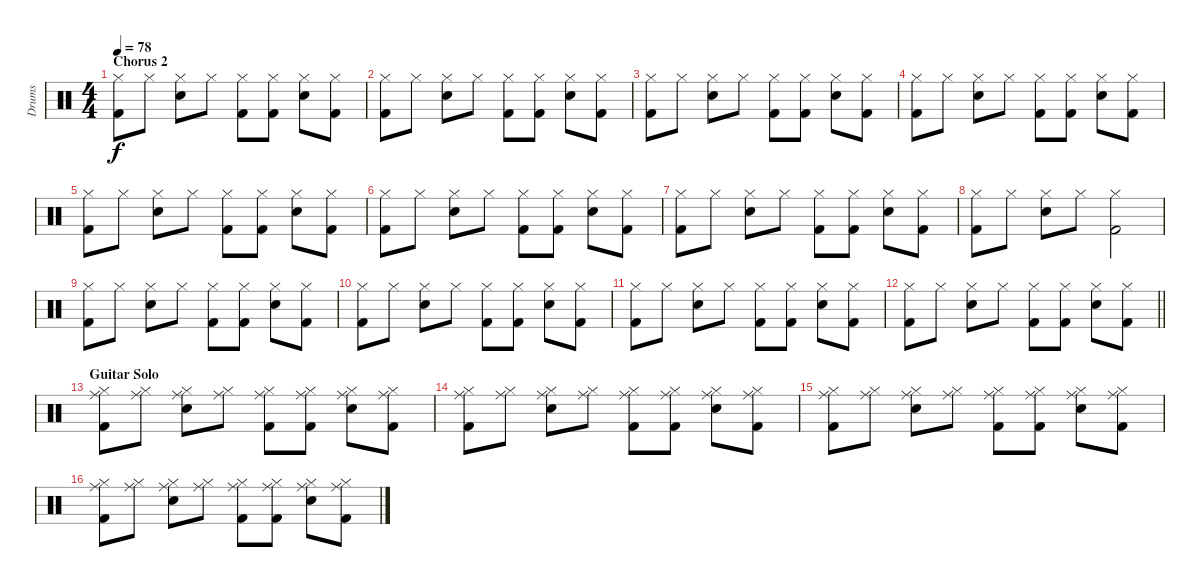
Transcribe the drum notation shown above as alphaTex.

\track ("Drums" "Drums") {instrument percussion}
\staff {score}
\articulation defaults
\ts (4 4)
\section ("" "Chorus 2")
\tempo 78
\clef neutral
\ks c
("Hi-Hat (closed)" "Kick (hit) 2").8{dy f} "Hi-Hat (closed)".8 ("Hi-Hat (closed)" "Snare (hit) 2").8 "Hi-Hat (closed)".8 ("Hi-Hat (closed)" "Kick (hit) 2").8 ("Hi-Hat (closed)" "Kick (hit) 2").8 ("Hi-Hat (closed)" "Snare (hit) 2").8 ("Hi-Hat (closed)" "Kick (hit) 2").8 |
("Hi-Hat (closed)" "Kick (hit) 2").8 "Hi-Hat (closed)".8 ("Hi-Hat (closed)" "Snare (hit) 2").8 "Hi-Hat (closed)".8 ("Hi-Hat (closed)" "Kick (hit) 2").8 ("Hi-Hat (closed)" "Kick (hit) 2").8 ("Hi-Hat (closed)" "Snare (hit) 2").8 ("Hi-Hat (closed)" "Kick (hit) 2").8 |
("Hi-Hat (closed)" "Kick (hit) 2").8 "Hi-Hat (closed)".8 ("Hi-Hat (closed)" "Snare (hit) 2").8 "Hi-Hat (closed)".8 ("Hi-Hat (closed)" "Kick (hit) 2").8 ("Hi-Hat (closed)" "Kick (hit) 2").8 ("Hi-Hat (closed)" "Snare (hit) 2").8 ("Hi-Hat (closed)" "Kick (hit) 2").8 |
("Hi-Hat (closed)" "Kick (hit) 2").8 "Hi-Hat (closed)".8 ("Hi-Hat (closed)" "Snare (hit) 2").8 "Hi-Hat (closed)".8 ("Hi-Hat (closed)" "Kick (hit) 2").8 ("Hi-Hat (closed)" "Kick (hit) 2").8 ("Hi-Hat (closed)" "Snare (hit) 2").8 ("Hi-Hat (closed)" "Kick (hit) 2").8 |
("Hi-Hat (closed)" "Kick (hit) 2").8 "Hi-Hat (closed)".8 ("Hi-Hat (closed)" "Snare (hit) 2").8 "Hi-Hat (closed)".8 ("Hi-Hat (closed)" "Kick (hit) 2").8 ("Hi-Hat (closed)" "Kick (hit) 2").8 ("Hi-Hat (closed)" "Snare (hit) 2").8 ("Hi-Hat (closed)" "Kick (hit) 2").8 |
("Hi-Hat (closed)" "Kick (hit) 2").8 "Hi-Hat (closed)".8 ("Hi-Hat (closed)" "Snare (hit) 2").8 "Hi-Hat (closed)".8 ("Hi-Hat (closed)" "Kick (hit) 2").8 ("Hi-Hat (closed)" "Kick (hit) 2").8 ("Hi-Hat (closed)" "Snare (hit) 2").8 ("Hi-Hat (closed)" "Kick (hit) 2").8 |
("Hi-Hat (closed)" "Kick (hit) 2").8 "Hi-Hat (closed)".8 ("Hi-Hat (closed)" "Snare (hit) 2").8 "Hi-Hat (closed)".8 ("Hi-Hat (closed)" "Kick (hit) 2").8 ("Hi-Hat (closed)" "Kick (hit) 2").8 ("Hi-Hat (closed)" "Snare (hit) 2").8 ("Hi-Hat (closed)" "Kick (hit) 2").8 |
("Hi-Hat (closed)" "Kick (hit) 2").8 "Hi-Hat (closed)".8 ("Hi-Hat (closed)" "Snare (hit) 2").8 "Hi-Hat (closed)".8 ("Hi-Hat (closed)" "Kick (hit) 2").2 |
("Hi-Hat (closed)" "Kick (hit) 2").8 "Hi-Hat (closed)".8 ("Hi-Hat (closed)" "Snare (hit) 2").8 "Hi-Hat (closed)".8 ("Hi-Hat (closed)" "Kick (hit) 2").8 ("Hi-Hat (closed)" "Kick (hit) 2").8 ("Hi-Hat (closed)" "Snare (hit) 2").8 ("Hi-Hat (closed)" "Kick (hit) 2").8 |
("Hi-Hat (closed)" "Kick (hit) 2").8 "Hi-Hat (closed)".8 ("Hi-Hat (closed)" "Snare (hit) 2").8 "Hi-Hat (closed)".8 ("Hi-Hat (closed)" "Kick (hit) 2").8 ("Hi-Hat (closed)" "Kick (hit) 2").8 ("Hi-Hat (closed)" "Snare (hit) 2").8 ("Hi-Hat (closed)" "Kick (hit) 2").8 |
("Hi-Hat (closed)" "Kick (hit) 2").8 "Hi-Hat (closed)".8 ("Hi-Hat (closed)" "Snare (hit) 2").8 "Hi-Hat (closed)".8 ("Hi-Hat (closed)" "Kick (hit) 2").8 ("Hi-Hat (closed)" "Kick (hit) 2").8 ("Hi-Hat (closed)" "Snare (hit) 2").8 ("Hi-Hat (closed)" "Kick (hit) 2").8 |
\barLineRight lightlight
("Hi-Hat (closed)" "Kick (hit) 2").8 "Hi-Hat (closed)".8 ("Hi-Hat (closed)" "Snare (hit) 2").8 "Hi-Hat (closed)".8 ("Hi-Hat (closed)" "Kick (hit) 2").8 ("Hi-Hat (closed)" "Kick (hit) 2").8 ("Hi-Hat (closed)" "Snare (hit) 2").8 ("Hi-Hat (closed)" "Kick (hit) 2").8 |
\section ("" "Guitar Solo")
("Ride (middle)" "Hi-Hat (closed)" "Kick (hit) 2").8 ("Ride (middle)" "Hi-Hat (closed)").8 ("Ride (middle)" "Hi-Hat (closed)" "Snare (hit) 2").8 ("Ride (middle)" "Hi-Hat (closed)").8 ("Ride (middle)" "Hi-Hat (closed)" "Kick (hit) 2").8 ("Ride (middle)" "Hi-Hat (closed)" "Kick (hit) 2").8 ("Ride (middle)" "Hi-Hat (closed)" "Snare (hit) 2").8 ("Ride (middle)" "Hi-Hat (closed)" "Kick (hit) 2").8 |
("Ride (middle)" "Hi-Hat (closed)" "Kick (hit) 2").8 ("Ride (middle)" "Hi-Hat (closed)").8 ("Ride (middle)" "Hi-Hat (closed)" "Snare (hit) 2").8 ("Ride (middle)" "Hi-Hat (closed)").8 ("Ride (middle)" "Hi-Hat (closed)" "Kick (hit) 2").8 ("Ride (middle)" "Hi-Hat (closed)" "Kick (hit) 2").8 ("Ride (middle)" "Hi-Hat (closed)" "Snare (hit) 2").8 ("Ride (middle)" "Hi-Hat (closed)" "Kick (hit) 2").8 |
("Ride (middle)" "Hi-Hat (closed)" "Kick (hit) 2").8 ("Ride (middle)" "Hi-Hat (closed)").8 ("Ride (middle)" "Hi-Hat (closed)" "Snare (hit) 2").8 ("Ride (middle)" "Hi-Hat (closed)").8 ("Ride (middle)" "Hi-Hat (closed)" "Kick (hit) 2").8 ("Ride (middle)" "Hi-Hat (closed)" "Kick (hit) 2").8 ("Ride (middle)" "Hi-Hat (closed)" "Snare (hit) 2").8 ("Ride (middle)" "Hi-Hat (closed)" "Kick (hit) 2").8 |
("Ride (middle)" "Hi-Hat (closed)" "Kick (hit) 2").8 ("Ride (middle)" "Hi-Hat (closed)").8 ("Ride (middle)" "Hi-Hat (closed)" "Snare (hit) 2").8 ("Ride (middle)" "Hi-Hat (closed)").8 ("Ride (middle)" "Hi-Hat (closed)" "Kick (hit) 2").8 ("Ride (middle)" "Hi-Hat (closed)" "Kick (hit) 2").8 ("Ride (middle)" "Hi-Hat (closed)" "Snare (hit) 2").8 ("Ride (middle)" "Hi-Hat (closed)" "Kick (hit) 2").8
